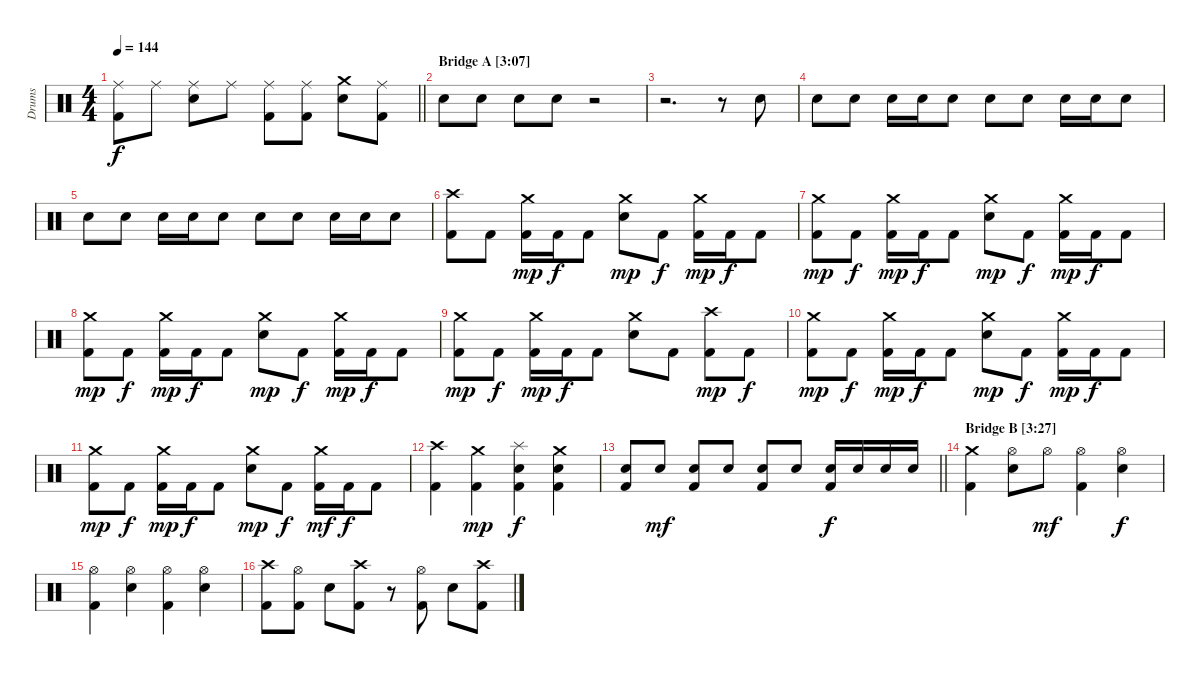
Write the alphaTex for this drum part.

\track ("Drums" "Drums") {instrument percussion}
\staff {score}
\articulation defaults
\ts (4 4)
\tempo 144
\clef neutral
\barLineRight lightlight
\ks c
("Ride (middle)" "Kick (hit) 2").8{dy f} "Ride (middle)".8 ("Ride (middle)" "Snare (hit) 2").8 "Ride (middle)".8 ("Ride (middle)" "Kick (hit) 2").8 ("Ride (middle)" "Kick (hit) 2").8 ("Crash medium (hit)" "Snare (hit) 2").8 ("Ride (middle)" "Kick (hit) 2").8 |
\section ("" "Bridge A [3:07]")
"Snare (hit) 2".8 "Snare (hit) 2".8 "Snare (hit) 2".8 "Snare (hit) 2".8 r.2 |
r.2{d} r.8 "Snare (hit) 2".8 |
"Snare (hit) 2".8 "Snare (hit) 2".8 "Snare (hit) 2".16 "Snare (hit) 2".16 "Snare (hit) 2".8 "Snare (hit) 2".8 "Snare (hit) 2".8 "Snare (hit) 2".16 "Snare (hit) 2".16 "Snare (hit) 2".8 |
"Snare (hit) 2".8 "Snare (hit) 2".8 "Snare (hit) 2".16 "Snare (hit) 2".16 "Snare (hit) 2".8 "Snare (hit) 2".8 "Snare (hit) 2".8 "Snare (hit) 2".16 "Snare (hit) 2".16 "Snare (hit) 2".8 |
("Crash high (hit)" "Kick (hit) 2").8 "Kick (hit) 2".8 ("Crash medium (hit)" "Kick (hit) 2").16{dy mp} "Kick (hit) 2".16{dy f} "Kick (hit) 2".8 ("Crash medium (hit)" "Snare (hit) 2").8{dy mp} "Kick (hit) 2".8{dy f} ("Crash medium (hit)" "Kick (hit) 2").16{dy mp} "Kick (hit) 2".16{dy f} "Kick (hit) 2".8 |
("Crash medium (hit)" "Kick (hit) 2").8{dy mp} "Kick (hit) 2".8{dy f} ("Crash medium (hit)" "Kick (hit) 2").16{dy mp} "Kick (hit) 2".16{dy f} "Kick (hit) 2".8 ("Crash medium (hit)" "Snare (hit) 2").8{dy mp} "Kick (hit) 2".8{dy f} ("Crash medium (hit)" "Kick (hit) 2").16{dy mp} "Kick (hit) 2".16{dy f} "Kick (hit) 2".8 |
("Crash medium (hit)" "Kick (hit) 2").8{dy mp} "Kick (hit) 2".8{dy f} ("Crash medium (hit)" "Kick (hit) 2").16{dy mp} "Kick (hit) 2".16{dy f} "Kick (hit) 2".8 ("Crash medium (hit)" "Snare (hit) 2").8{dy mp} "Kick (hit) 2".8{dy f} ("Crash medium (hit)" "Kick (hit) 2").16{dy mp} "Kick (hit) 2".16{dy f} "Kick (hit) 2".8 |
("Crash medium (hit)" "Kick (hit) 2").8{dy mp} "Kick (hit) 2".8{dy f} ("Crash medium (hit)" "Kick (hit) 2").16{dy mp} "Kick (hit) 2".16{dy f} "Kick (hit) 2".8 ("Crash medium (hit)" "Snare (hit) 2").8 "Kick (hit) 2".8 ("Crash high (hit)" "Kick (hit) 2").8{dy mp} "Kick (hit) 2".8{dy f} |
("Crash medium (hit)" "Kick (hit) 2").8{dy mp} "Kick (hit) 2".8{dy f} ("Crash medium (hit)" "Kick (hit) 2").16{dy mp} "Kick (hit) 2".16{dy f} "Kick (hit) 2".8 ("Crash medium (hit)" "Snare (hit) 2").8{dy mp} "Kick (hit) 2".8{dy f} ("Crash medium (hit)" "Kick (hit) 2").16{dy mp} "Kick (hit) 2".16{dy f} "Kick (hit) 2".8 |
("Crash medium (hit)" "Kick (hit) 2").8{dy mp} "Kick (hit) 2".8{dy f} ("Crash medium (hit)" "Kick (hit) 2").16{dy mp} "Kick (hit) 2".16{dy f} "Kick (hit) 2".8 ("Crash medium (hit)" "Snare (hit) 2").8{dy mp} "Kick (hit) 2".8{dy f} ("Crash medium (hit)" "Kick (hit) 2").16{dy mf} "Kick (hit) 2".16{dy f} "Kick (hit) 2".8 |
("Crash high (hit)" "Kick (hit) 2").4 ("Crash medium (hit)" "Kick (hit) 2").4{dy mp} ("Splash (hit)" "Snare (hit) 2" "Kick (hit) 2").4{dy f} ("Crash medium (hit)" "Snare (hit) 2" "Kick (hit) 2").4 |
\barLineRight lightlight
("Snare (hit) 2" "Kick (hit) 2").8 "Snare (hit) 2".8{dy mf} ("Snare (hit) 2" "Kick (hit) 2").8 "Snare (hit) 2".8 ("Snare (hit) 2" "Kick (hit) 2").8 "Snare (hit) 2".8 ("Snare (hit) 2" "Kick (hit) 2").16{dy f} "Snare (hit) 2".16 "Snare (hit) 2".16 "Snare (hit) 2".16 |
\section ("" "Bridge B [3:27]")
("Crash medium (hit)" "Kick (hit) 2").4 ("Hi-Hat (open)" "Snare (hit) 2").8 "Hi-Hat (open)".8{dy mf} ("Hi-Hat (open)" "Kick (hit) 2").4 ("Hi-Hat (open)" "Snare (hit) 2").4{dy f} |
("Hi-Hat (open)" "Kick (hit) 2").4 ("Hi-Hat (open)" "Snare (hit) 2").4 ("Hi-Hat (open)" "Kick (hit) 2").4 ("Hi-Hat (open)" "Snare (hit) 2").4 |
("Crash high (hit)" "Kick (hit) 2").8 ("Hi-Hat (open)" "Kick (hit) 2").8 "Snare (hit) 2".8 ("Crash high (hit)" "Kick (hit) 2").8 r.8 ("Hi-Hat (open)" "Kick (hit) 2").8 "Snare (hit) 2".8 ("Crash high (hit)" "Kick (hit) 2").8
